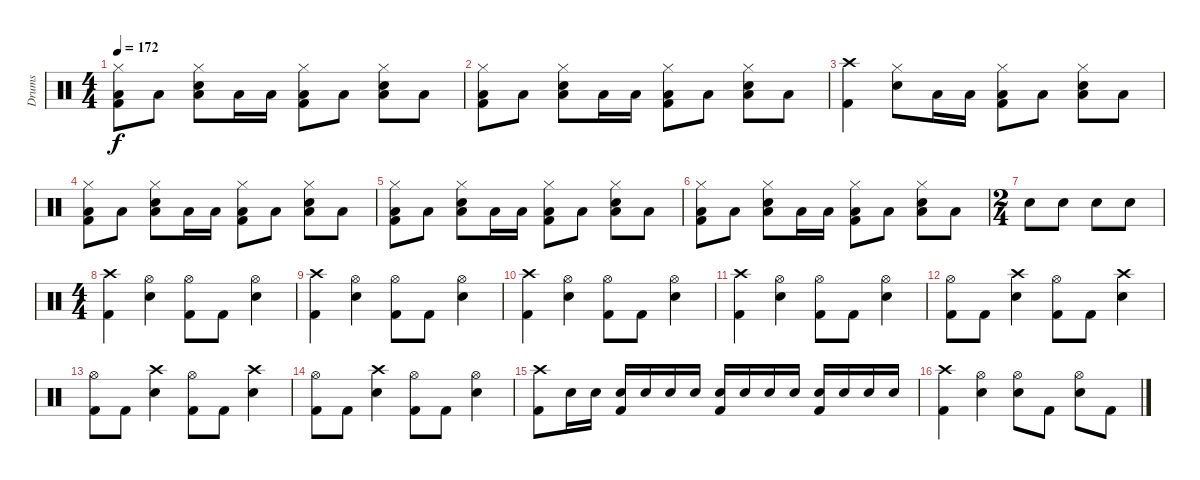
\track ("Drums" "Drums") {instrument percussion}
\staff {score}
\articulation defaults
\ts (4 4)
\tempo 172
\clef neutral
\ks c
("Hi-Hat (closed)" "Low Floor Tom (hit)" "Kick (hit) 2").8{dy f} "Low Floor Tom (hit)".8 ("Hi-Hat (closed)" "Electric Snare (hit)" "Low Floor Tom (hit)").8 "Low Floor Tom (hit)".16 "Low Floor Tom (hit)".16 ("Hi-Hat (closed)" "Low Floor Tom (hit)" "Kick (hit) 2").8 "Low Floor Tom (hit)".8 ("Hi-Hat (closed)" "Electric Snare (hit)" "Low Floor Tom (hit)").8 "Low Floor Tom (hit)".8 |
("Hi-Hat (closed)" "Low Floor Tom (hit)" "Kick (hit) 2").8 "Low Floor Tom (hit)".8 ("Hi-Hat (closed)" "Electric Snare (hit)" "Low Floor Tom (hit)").8 "Low Floor Tom (hit)".16 "Low Floor Tom (hit)".16 ("Hi-Hat (closed)" "Low Floor Tom (hit)" "Kick (hit) 2").8 "Low Floor Tom (hit)".8 ("Hi-Hat (closed)" "Electric Snare (hit)" "Low Floor Tom (hit)").8 "Low Floor Tom (hit)".8 |
("Crash high (hit)" "Kick (hit) 2").4 ("Hi-Hat (closed)" "Electric Snare (hit)").8 "Low Floor Tom (hit)".16 "Low Floor Tom (hit)".16 ("Hi-Hat (closed)" "Low Floor Tom (hit)" "Kick (hit) 2").8 "Low Floor Tom (hit)".8 ("Hi-Hat (closed)" "Electric Snare (hit)" "Low Floor Tom (hit)").8 "Low Floor Tom (hit)".8 |
("Hi-Hat (closed)" "Low Floor Tom (hit)" "Kick (hit) 2").8 "Low Floor Tom (hit)".8 ("Hi-Hat (closed)" "Electric Snare (hit)" "Low Floor Tom (hit)").8 "Low Floor Tom (hit)".16 "Low Floor Tom (hit)".16 ("Hi-Hat (closed)" "Low Floor Tom (hit)" "Kick (hit) 2").8 "Low Floor Tom (hit)".8 ("Hi-Hat (closed)" "Electric Snare (hit)" "Low Floor Tom (hit)").8 "Low Floor Tom (hit)".8 |
("Hi-Hat (closed)" "Low Floor Tom (hit)" "Kick (hit) 2").8 "Low Floor Tom (hit)".8 ("Hi-Hat (closed)" "Electric Snare (hit)" "Low Floor Tom (hit)").8 "Low Floor Tom (hit)".16 "Low Floor Tom (hit)".16 ("Hi-Hat (closed)" "Low Floor Tom (hit)" "Kick (hit) 2").8 "Low Floor Tom (hit)".8 ("Hi-Hat (closed)" "Electric Snare (hit)" "Low Floor Tom (hit)").8 "Low Floor Tom (hit)".8 |
("Hi-Hat (closed)" "Low Floor Tom (hit)" "Kick (hit) 2").8 "Low Floor Tom (hit)".8 ("Hi-Hat (closed)" "Electric Snare (hit)" "Low Floor Tom (hit)").8 "Low Floor Tom (hit)".16 "Low Floor Tom (hit)".16 ("Hi-Hat (closed)" "Low Floor Tom (hit)" "Kick (hit) 2").8 "Low Floor Tom (hit)".8 ("Hi-Hat (closed)" "Electric Snare (hit)" "Low Floor Tom (hit)").8 "Low Floor Tom (hit)".8 |
\ts (2 4)
"Electric Snare (hit)".8 "Electric Snare (hit)".8 "Electric Snare (hit)".8 "Electric Snare (hit)".8 |
\ts (4 4)
("Crash high (hit)" "Kick (hit) 2").4 ("Hi-Hat (open)" "Electric Snare (hit)").4 ("Hi-Hat (open)" "Kick (hit) 2").8 "Kick (hit) 2".8 ("Hi-Hat (open)" "Electric Snare (hit)").4 |
("Crash high (hit)" "Kick (hit) 2").4 ("Hi-Hat (open)" "Electric Snare (hit)").4 ("Hi-Hat (open)" "Kick (hit) 2").8 "Kick (hit) 2".8 ("Hi-Hat (open)" "Electric Snare (hit)").4 |
("Crash high (hit)" "Kick (hit) 2").4 ("Hi-Hat (open)" "Electric Snare (hit)").4 ("Hi-Hat (open)" "Kick (hit) 2").8 "Kick (hit) 2".8 ("Hi-Hat (open)" "Electric Snare (hit)").4 |
("Crash high (hit)" "Kick (hit) 2").4 ("Hi-Hat (open)" "Electric Snare (hit)").4 ("Hi-Hat (open)" "Kick (hit) 2").8 "Kick (hit) 2".8 ("Hi-Hat (open)" "Electric Snare (hit)").4 |
("Hi-Hat (open)" "Kick (hit) 2").8 "Kick (hit) 2".8 ("Crash high (hit)" "Electric Snare (hit)").4 ("Hi-Hat (open)" "Kick (hit) 2").8 "Kick (hit) 2".8 ("Crash high (hit)" "Electric Snare (hit)").4 |
("Hi-Hat (open)" "Kick (hit) 2").8 "Kick (hit) 2".8 ("Crash high (hit)" "Electric Snare (hit)").4 ("Hi-Hat (open)" "Kick (hit) 2").8 "Kick (hit) 2".8 ("Crash high (hit)" "Electric Snare (hit)").4 |
("Hi-Hat (open)" "Kick (hit) 2").8 "Kick (hit) 2".8 ("Crash high (hit)" "Electric Snare (hit)").4 ("Hi-Hat (open)" "Kick (hit) 2").8 "Kick (hit) 2".8 ("Hi-Hat (open)" "Electric Snare (hit)").4 |
("Crash high (hit)" "Kick (hit) 2").8 "Electric Snare (hit)".16 "Electric Snare (hit)".16 ("Electric Snare (hit)" "Kick (hit) 2").16 "Electric Snare (hit)".16 "Electric Snare (hit)".16 "Electric Snare (hit)".16 ("Electric Snare (hit)" "Kick (hit) 2").16 "Electric Snare (hit)".16 "Electric Snare (hit)".16 "Electric Snare (hit)".16 ("Electric Snare (hit)" "Kick (hit) 2").16 "Electric Snare (hit)".16 "Electric Snare (hit)".16 "Electric Snare (hit)".16 |
("Crash high (hit)" "Kick (hit) 2").4 ("Hi-Hat (open)" "Electric Snare (hit)").4 ("Hi-Hat (open)" "Electric Snare (hit)").8 "Kick (hit) 2".8 ("Hi-Hat (open)" "Electric Snare (hit)").8 "Kick (hit) 2".8
